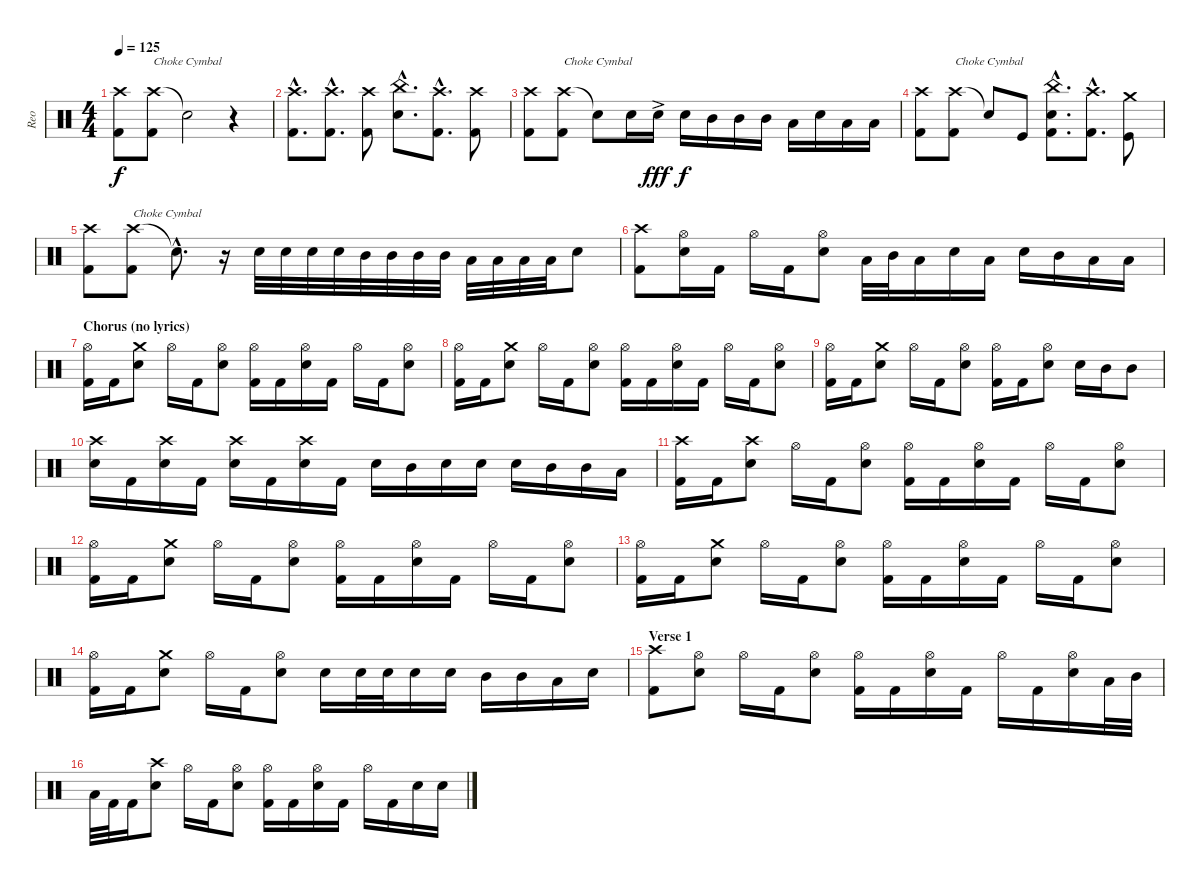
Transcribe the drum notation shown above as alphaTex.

\track ("Reo" "Reo") {instrument percussion}
\staff {score}
\articulation defaults
\ts (4 4)
\tempo 125
\clef neutral
\ks c
("Crash high (hit)" "Kick (hit) 2").8{dy f volume 13} ("Crash high (hit)" "Kick (hit) 2").8{txt "Choke Cymbal"} "Snare (hit)"{t}.2{volume 0} r.4 |
("Crash high (hit)"{hac} "Kick (hit) 2"{hac}).8{d volume 13} ("Crash high (hit)"{hac} "Kick (hit) 2"{hac}).8{d} ("Crash high (hit)" "Kick (hit) 2").8 ("China (hit)"{hac} "Electric Snare (hit)"{hac}).8{d} ("Crash high (hit)"{hac} "Kick (hit) 2"{hac}).8{d} ("Crash high (hit)" "Kick (hit) 2").8 |
("Crash high (hit)" "Kick (hit) 2").8 ("Crash high (hit)" "Kick (hit) 2").8{txt "Choke Cymbal" volume 13} "Snare (hit)"{t}.8{volume 0} "Electric Snare (hit)".16{volume 13} "Electric Snare (hit)"{ac}.16{dy fff} "Electric Snare (hit)".16{dy f} "Mid Tom (hit)".16 "Mid Tom (hit)".16 "Mid Tom (hit)".16 "Low Tom (hit)".16 "Electric Snare (hit)".16 "Low Tom (hit)".16 "Low Tom (hit)".16 |
("Crash high (hit)" "Kick (hit) 2").8 ("Crash high (hit)" "Kick (hit) 2").8{txt "Choke Cymbal"} "Snare (hit)"{t}.8{volume 0} "Kick (hit)".8{volume 13} ("China (hit)"{hac} "Electric Snare (hit)"{hac} "Kick (hit) 2"{hac}).8{d} ("Crash high (hit)"{hac} "Kick (hit) 2"{hac}).8{d} ("Crash medium (hit)" "Kick (hit)").8 |
("Crash high (hit)" "Kick (hit) 2").8 ("Crash high (hit)" "Kick (hit) 2").8{txt "Choke Cymbal"} "Snare (hit)"{hac t}.8{d volume 0} r.16 "Electric Snare (hit)".32{volume 13} "Electric Snare (hit)".32 "Electric Snare (hit)".32 "Electric Snare (hit)".32 "Mid Tom (hit)".32 "Mid Tom (hit)".32 "Mid Tom (hit)".32 "Mid Tom (hit)".32 "Low Tom (hit)".32 "Low Tom (hit)".32 "Low Tom (hit)".32 "Low Tom (hit)".32 "Electric Snare (hit)".8 |
("Crash high (hit)" "Kick (hit) 2").8 ("Hi-Hat (open)" "Electric Snare (hit)").16 "Kick (hit) 2".16 "Hi-Hat (open)".16 "Kick (hit) 2".16 ("Hi-Hat (open)" "Electric Snare (hit)").8 "Low Tom (hit)".32 "Mid Tom (hit)".32 "Low Tom (hit)".16 "Electric Snare (hit)".16 "Low Tom (hit)".16 "Electric Snare (hit)".16 "Mid Tom (hit)".16 "Low Tom (hit)".16 "Low Tom (hit)".16 |
\section ("" "Chorus (no lyrics)")
("Hi-Hat (open)" "Kick (hit) 2").16 "Kick (hit) 2".16 ("Crash medium (hit)" "Electric Snare (hit)").8 "Hi-Hat (open)".16 "Kick (hit) 2".16 ("Hi-Hat (open)" "Electric Snare (hit)").8 ("Hi-Hat (open)" "Kick (hit) 2").16 "Kick (hit) 2".16 ("Hi-Hat (open)" "Electric Snare (hit)").16 "Kick (hit) 2".16 "Hi-Hat (open)".16 "Kick (hit) 2".16 ("Hi-Hat (open)" "Electric Snare (hit)").8 |
("Hi-Hat (open)" "Kick (hit) 2").16 "Kick (hit) 2".16 ("Crash medium (hit)" "Electric Snare (hit)").8 "Hi-Hat (open)".16 "Kick (hit) 2".16 ("Hi-Hat (open)" "Electric Snare (hit)").8 ("Hi-Hat (open)" "Kick (hit) 2").16 "Kick (hit) 2".16 ("Hi-Hat (open)" "Electric Snare (hit)").16 "Kick (hit) 2".16 "Hi-Hat (open)".16 "Kick (hit) 2".16 ("Hi-Hat (open)" "Electric Snare (hit)").8 |
("Hi-Hat (open)" "Kick (hit) 2").16 "Kick (hit) 2".16 ("Crash medium (hit)" "Electric Snare (hit)").8 "Hi-Hat (open)".16 "Kick (hit) 2".16 ("Hi-Hat (open)" "Electric Snare (hit)").8 ("Hi-Hat (open)" "Kick (hit) 2").16 "Kick (hit) 2".16 ("Hi-Hat (open)" "Electric Snare (hit)").8 "Electric Snare (hit)".16 "Mid Tom (hit)".16 "Mid Tom (hit)".8 |
("Crash high (hit)" "Electric Snare (hit)").16 "Kick (hit) 2".16 ("Crash high (hit)" "Electric Snare (hit)").16 "Kick (hit) 2".16 ("Crash high (hit)" "Electric Snare (hit)").16 "Kick (hit) 2".16 ("Crash high (hit)" "Electric Snare (hit)").16 "Kick (hit) 2".16 "Electric Snare (hit)".16 "Mid Tom (hit)".16 "Electric Snare (hit)".16 "Electric Snare (hit)".16 "Electric Snare (hit)".16 "Mid Tom (hit)".16 "Mid Tom (hit)".16 "Low Tom (hit)".16 |
("Crash high (hit)" "Kick (hit) 2").16 "Kick (hit) 2".16 ("Crash high (hit)" "Electric Snare (hit)").8 "Hi-Hat (open)".16 "Kick (hit) 2".16 ("Hi-Hat (open)" "Electric Snare (hit)").8 ("Hi-Hat (open)" "Kick (hit) 2").16 "Kick (hit) 2".16 ("Hi-Hat (open)" "Electric Snare (hit)").16 "Kick (hit) 2".16 "Hi-Hat (open)".16 "Kick (hit) 2".16 ("Hi-Hat (open)" "Electric Snare (hit)").8 |
("Hi-Hat (open)" "Kick (hit) 2").16 "Kick (hit) 2".16 ("Crash medium (hit)" "Electric Snare (hit)").8 "Hi-Hat (open)".16 "Kick (hit) 2".16 ("Hi-Hat (open)" "Electric Snare (hit)").8 ("Hi-Hat (open)" "Kick (hit) 2").16 "Kick (hit) 2".16 ("Hi-Hat (open)" "Electric Snare (hit)").16 "Kick (hit) 2".16 "Hi-Hat (open)".16 "Kick (hit) 2".16 ("Hi-Hat (open)" "Electric Snare (hit)").8 |
("Hi-Hat (open)" "Kick (hit) 2").16 "Kick (hit) 2".16 ("Crash medium (hit)" "Electric Snare (hit)").8 "Hi-Hat (open)".16 "Kick (hit) 2".16 ("Hi-Hat (open)" "Electric Snare (hit)").8 ("Hi-Hat (open)" "Kick (hit) 2").16 "Kick (hit) 2".16 ("Hi-Hat (open)" "Electric Snare (hit)").16 "Kick (hit) 2".16 "Hi-Hat (open)".16 "Kick (hit) 2".16 ("Hi-Hat (open)" "Electric Snare (hit)").8 |
("Hi-Hat (open)" "Kick (hit) 2").16 "Kick (hit) 2".16 ("Crash medium (hit)" "Electric Snare (hit)").8 "Hi-Hat (open)".16 "Kick (hit) 2".16 ("Hi-Hat (open)" "Electric Snare (hit)").8 "Electric Snare (hit)".16 "Electric Snare (hit)".32 "Electric Snare (hit)".32 "Electric Snare (hit)".16 "Electric Snare (hit)".16 "Mid Tom (hit)".16 "Mid Tom (hit)".16 "Low Tom (hit)".16 "Electric Snare (hit)".16 |
\section ("" "Verse 1")
("Crash high (hit)" "Kick (hit) 2").8 ("Hi-Hat (open)" "Electric Snare (hit)").8 "Hi-Hat (open)".16 "Kick (hit) 2".16 ("Hi-Hat (open)" "Electric Snare (hit)").8 ("Hi-Hat (open)" "Kick (hit) 2").16 "Kick (hit) 2".16 ("Hi-Hat (open)" "Electric Snare (hit)").16 "Kick (hit) 2".16 "Hi-Hat (open)".16 "Kick (hit) 2".16 ("Hi-Hat (open)" "Electric Snare (hit)").16 "Low Tom (hit)".32 "Mid Tom (hit)".32 |
"Low Tom (hit)".32 "Kick (hit) 2".32 "Kick (hit) 2".16 ("Crash high (hit)" "Electric Snare (hit)").8 "Hi-Hat (open)".16 "Kick (hit) 2".16 ("Hi-Hat (open)" "Electric Snare (hit)").8 ("Hi-Hat (open)" "Kick (hit) 2").16 "Kick (hit) 2".16 ("Hi-Hat (open)" "Electric Snare (hit)").16 "Kick (hit) 2".16 "Hi-Hat (open)".16 "Kick (hit) 2".16 "Electric Snare (hit)".16 "Electric Snare (hit)".16
